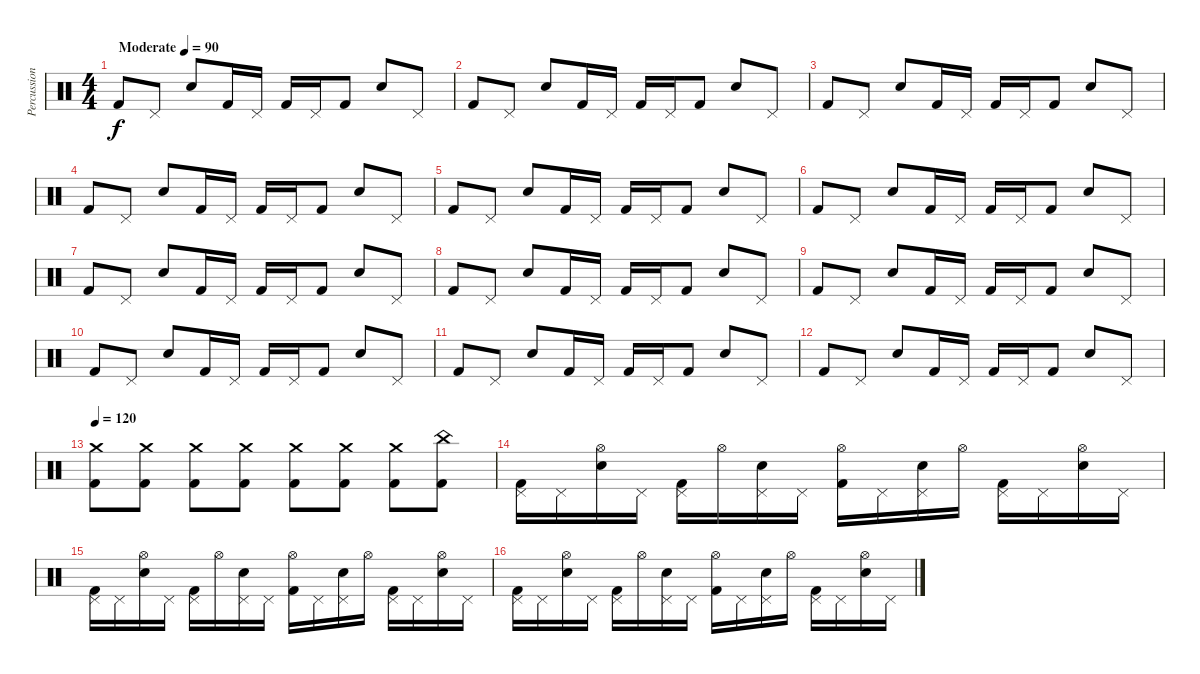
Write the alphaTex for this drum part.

\track ("Percussion" "Percussion") {instrument percussion}
\staff {score}
\articulation defaults
\ts (4 4)
\tempo (90 "Moderate")
\clef neutral
\ks c "Kick (hit) 2".8{dy f} "Pedal Hi-Hat (hit)".8 "Snare (hit) 2".8 "Kick (hit) 2".16 "Pedal Hi-Hat (hit)".16 "Kick (hit) 2".16 "Pedal Hi-Hat (hit)".16 "Kick (hit) 2".8 "Snare (hit) 2".8 "Pedal Hi-Hat (hit)".8
|
"Kick (hit) 2".8 "Pedal Hi-Hat (hit)".8 "Snare (hit) 2".8 "Kick (hit) 2".16 "Pedal Hi-Hat (hit)".16 "Kick (hit) 2".16 "Pedal Hi-Hat (hit)".16 "Kick (hit) 2".8 "Snare (hit) 2".8 "Pedal Hi-Hat (hit)".8 |
"Kick (hit) 2".8 "Pedal Hi-Hat (hit)".8 "Snare (hit) 2".8 "Kick (hit) 2".16 "Pedal Hi-Hat (hit)".16 "Kick (hit) 2".16 "Pedal Hi-Hat (hit)".16 "Kick (hit) 2".8 "Snare (hit) 2".8 "Pedal Hi-Hat (hit)".8 |
"Kick (hit) 2".8 "Pedal Hi-Hat (hit)".8 "Snare (hit) 2".8 "Kick (hit) 2".16 "Pedal Hi-Hat (hit)".16 "Kick (hit) 2".16 "Pedal Hi-Hat (hit)".16 "Kick (hit) 2".8 "Snare (hit) 2".8 "Pedal Hi-Hat (hit)".8 |
"Kick (hit) 2".8 "Pedal Hi-Hat (hit)".8 "Snare (hit) 2".8 "Kick (hit) 2".16 "Pedal Hi-Hat (hit)".16 "Kick (hit) 2".16 "Pedal Hi-Hat (hit)".16 "Kick (hit) 2".8 "Snare (hit) 2".8 "Pedal Hi-Hat (hit)".8 |
"Kick (hit) 2".8 "Pedal Hi-Hat (hit)".8 "Snare (hit) 2".8 "Kick (hit) 2".16 "Pedal Hi-Hat (hit)".16 "Kick (hit) 2".16 "Pedal Hi-Hat (hit)".16 "Kick (hit) 2".8 "Snare (hit) 2".8 "Pedal Hi-Hat (hit)".8 |
"Kick (hit) 2".8 "Pedal Hi-Hat (hit)".8 "Snare (hit) 2".8 "Kick (hit) 2".16 "Pedal Hi-Hat (hit)".16 "Kick (hit) 2".16 "Pedal Hi-Hat (hit)".16 "Kick (hit) 2".8 "Snare (hit) 2".8 "Pedal Hi-Hat (hit)".8 |
"Kick (hit) 2".8 "Pedal Hi-Hat (hit)".8 "Snare (hit) 2".8 "Kick (hit) 2".16 "Pedal Hi-Hat (hit)".16 "Kick (hit) 2".16 "Pedal Hi-Hat (hit)".16 "Kick (hit) 2".8 "Snare (hit) 2".8 "Pedal Hi-Hat (hit)".8 |
"Kick (hit) 2".8 "Pedal Hi-Hat (hit)".8 "Snare (hit) 2".8 "Kick (hit) 2".16 "Pedal Hi-Hat (hit)".16 "Kick (hit) 2".16 "Pedal Hi-Hat (hit)".16 "Kick (hit) 2".8 "Snare (hit) 2".8 "Pedal Hi-Hat (hit)".8 |
"Kick (hit) 2".8 "Pedal Hi-Hat (hit)".8 "Snare (hit) 2".8 "Kick (hit) 2".16 "Pedal Hi-Hat (hit)".16 "Kick (hit) 2".16 "Pedal Hi-Hat (hit)".16 "Kick (hit) 2".8 "Snare (hit) 2".8 "Pedal Hi-Hat (hit)".8 |
"Kick (hit) 2".8 "Pedal Hi-Hat (hit)".8 "Snare (hit) 2".8 "Kick (hit) 2".16 "Pedal Hi-Hat (hit)".16 "Kick (hit) 2".16 "Pedal Hi-Hat (hit)".16 "Kick (hit) 2".8 "Snare (hit) 2".8 "Pedal Hi-Hat (hit)".8 |
"Kick (hit) 2".8 "Pedal Hi-Hat (hit)".8 "Snare (hit) 2".8 "Kick (hit) 2".16 "Pedal Hi-Hat (hit)".16 "Kick (hit) 2".16 "Pedal Hi-Hat (hit)".16 "Kick (hit) 2".8 "Snare (hit) 2".8 "Pedal Hi-Hat (hit)".8 |
\tempo 120
("Kick (hit) 2" "Crash medium (hit)").8 ("Kick (hit) 2" "Crash medium (hit)").8 ("Kick (hit) 2" "Crash medium (hit)").8 ("Kick (hit) 2" "Crash medium (hit)").8 ("Kick (hit) 2" "Crash medium (hit)").8 ("Kick (hit) 2" "Crash medium (hit)").8 ("Kick (hit) 2" "Crash medium (hit)").8 ("Kick (hit) 2" "China (hit)").8 |
("Kick (hit) 2" "Pedal Hi-Hat (hit)").16 "Pedal Hi-Hat (hit)".16 ("Snare (hit) 2" "Hi-Hat (open)").16 "Pedal Hi-Hat (hit)".16 ("Kick (hit) 2" "Pedal Hi-Hat (hit)").16 "Hi-Hat (open)".16 ("Snare (hit) 2" "Pedal Hi-Hat (hit)").16 "Pedal Hi-Hat (hit)".16 ("Kick (hit) 2" "Hi-Hat (open)").16 "Pedal Hi-Hat (hit)".16 ("Snare (hit) 2" "Pedal Hi-Hat (hit)").16 "Hi-Hat (open)".16 ("Kick (hit) 2" "Pedal Hi-Hat (hit)").16 "Pedal Hi-Hat (hit)".16 ("Snare (hit) 2" "Hi-Hat (open)").16 "Pedal Hi-Hat (hit)".16 |
("Kick (hit) 2" "Pedal Hi-Hat (hit)").16 "Pedal Hi-Hat (hit)".16 ("Snare (hit) 2" "Hi-Hat (open)").16 "Pedal Hi-Hat (hit)".16 ("Kick (hit) 2" "Pedal Hi-Hat (hit)").16 "Hi-Hat (open)".16 ("Snare (hit) 2" "Pedal Hi-Hat (hit)").16 "Pedal Hi-Hat (hit)".16 ("Kick (hit) 2" "Hi-Hat (open)").16 "Pedal Hi-Hat (hit)".16 ("Snare (hit) 2" "Pedal Hi-Hat (hit)").16 "Hi-Hat (open)".16 ("Kick (hit) 2" "Pedal Hi-Hat (hit)").16 "Pedal Hi-Hat (hit)".16 ("Snare (hit) 2" "Hi-Hat (open)").16 "Pedal Hi-Hat (hit)".16 |
("Kick (hit) 2" "Pedal Hi-Hat (hit)").16 "Pedal Hi-Hat (hit)".16 ("Snare (hit) 2" "Hi-Hat (open)").16 "Pedal Hi-Hat (hit)".16 ("Kick (hit) 2" "Pedal Hi-Hat (hit)").16 "Hi-Hat (open)".16 ("Snare (hit) 2" "Pedal Hi-Hat (hit)").16 "Pedal Hi-Hat (hit)".16 ("Kick (hit) 2" "Hi-Hat (open)").16 "Pedal Hi-Hat (hit)".16 ("Snare (hit) 2" "Pedal Hi-Hat (hit)").16 "Hi-Hat (open)".16 ("Kick (hit) 2" "Pedal Hi-Hat (hit)").16 "Pedal Hi-Hat (hit)".16 ("Snare (hit) 2" "Hi-Hat (open)").16 "Pedal Hi-Hat (hit)".16
